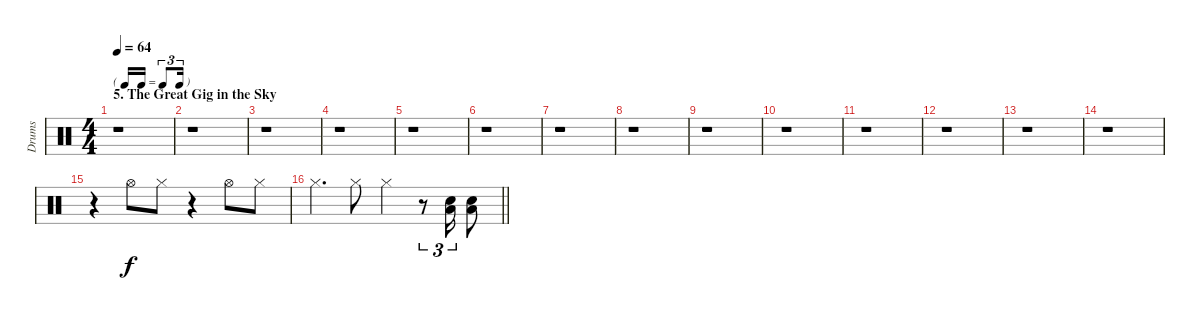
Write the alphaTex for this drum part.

\track ("Drums" "Drums") {instrument percussion}
\staff {score}
\articulation defaults
\ts (4 4)
\tf triplet16th
\section ("" "5. The Great Gig in the Sky")
\tempo 64
\clef neutral
\ks c
r.1{dy f} |
r.1 |
r.1 |
r.1 |
r.1 |
r.1 |
r.1 |
r.1 |
r.1 |
r.1 |
r.1 |
r.1 |
r.1 |
r.1 |
r.4 "Hi-Hat (open)".8 "Hi-Hat (closed)".8 r.4 "Hi-Hat (open)".8 "Hi-Hat (closed)".8 |
\barLineRight lightlight "Hi-Hat (closed)".4{d} "Hi-Hat (closed)".8 "Hi-Hat (closed)".4
r.8{tu (3 2)} ("Electric Snare (hit)" "Low Tom (hit)").16{tu (3 2)} ("Electric Snare (hit)" "Low Tom (hit)").8
